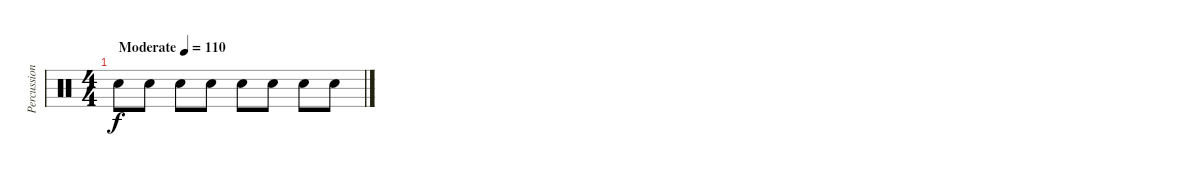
\track ("Percussion" "Percussion") {instrument percussion}
\staff {score}
\articulation defaults
\ts (4 4)
\tempo (110 "Moderate")
\clef neutral
\ks c "Snare (hit) 2".8{dy f} "Snare (hit) 2".8 "Snare (hit) 2".8 "Snare (hit) 2".8 "Snare (hit) 2".8 "Snare (hit) 2".8 "Snare (hit) 2".8 "Snare (hit) 2".8
